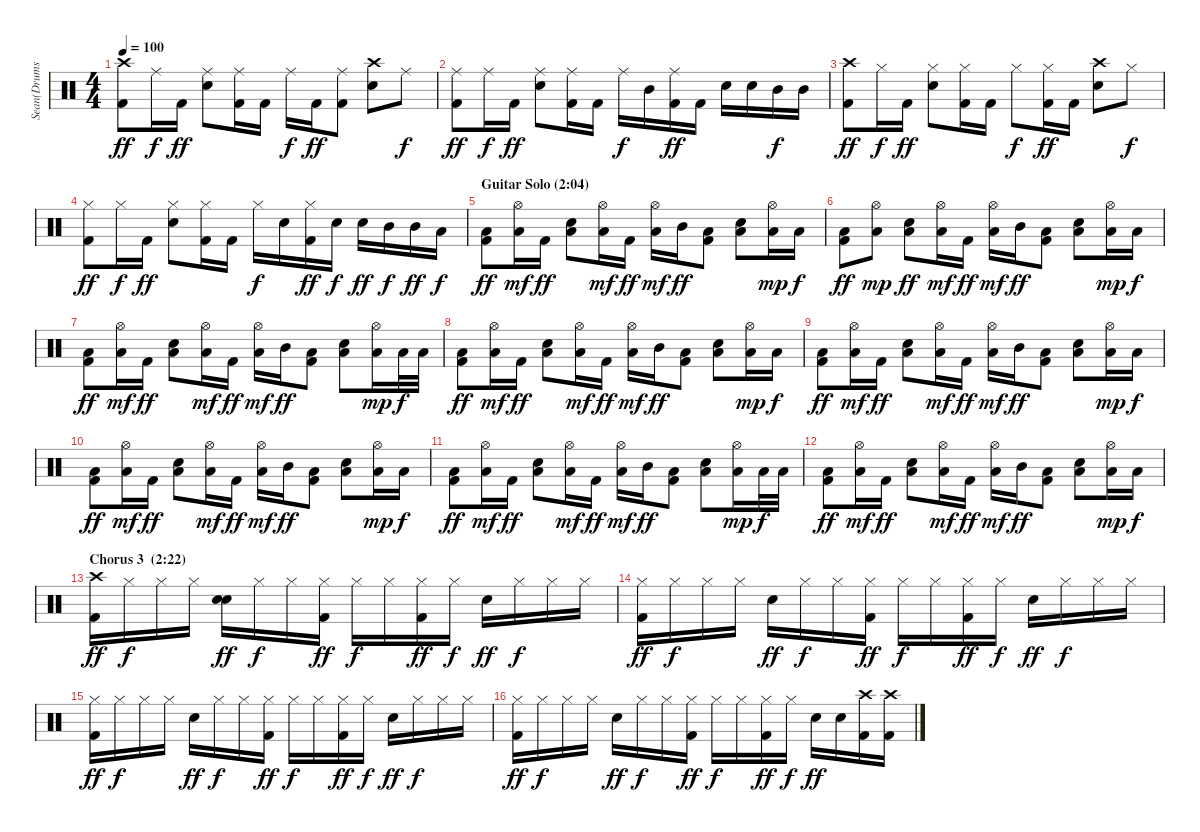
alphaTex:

\track ("Sean(Drums)" "Sean(Drums") {instrument percussion}
\staff {score}
\articulation defaults
\ts (4 4)
\tempo 100
\clef neutral
\ks c
("Crash high (hit)" "Kick (hit) 2").8{dy ff} "Ride (middle)".16{dy f} "Kick (hit) 2".16{dy ff} ("Ride (middle)" "Electric Snare (hit)").8 ("Ride (middle)" "Kick (hit) 2").16 "Kick (hit) 2".16 "Ride (middle)".16{dy f} "Kick (hit) 2".16{dy ff} ("Ride (middle)" "Kick (hit) 2").8 ("Crash high (hit)" "Electric Snare (hit)").8 "Ride (middle)".8{dy f} |
("Ride (middle)" "Kick (hit) 2").8{dy ff} "Ride (middle)".16{dy f} "Kick (hit) 2".16{dy ff} ("Ride (middle)" "Electric Snare (hit)").8 ("Ride (middle)" "Kick (hit) 2").16 "Kick (hit) 2".16 "Ride (middle)".16{dy f} "Mid Tom (hit)".16 ("Ride (middle)" "Kick (hit) 2").16{dy ff} "Kick (hit) 2".16 "Electric Snare (hit)".16 "Electric Snare (hit)".16 "Mid Tom (hit)".16{dy f} "Mid Tom (hit)".16 |
("Crash high (hit)" "Kick (hit) 2").8{dy ff} "Hi-Hat (closed)".16{dy f} "Kick (hit) 2".16{dy ff} ("Hi-Hat (closed)" "Electric Snare (hit)").8 ("Hi-Hat (closed)" "Kick (hit) 2").16 "Kick (hit) 2".16 "Hi-Hat (closed)".8{dy f} ("Hi-Hat (closed)" "Kick (hit) 2").16{dy ff} "Kick (hit) 2".16 ("Crash high (hit)" "Electric Snare (hit)").8 "Hi-Hat (closed)".8{dy f} |
("Hi-Hat (closed)" "Kick (hit) 2").8{dy ff} "Hi-Hat (closed)".16{dy f} "Kick (hit) 2".16{dy ff} ("Hi-Hat (closed)" "Electric Snare (hit)").8 ("Hi-Hat (closed)" "Kick (hit) 2").16 "Kick (hit) 2".16 "Hi-Hat (closed)".16{dy f} "Electric Snare (hit)".16 ("Hi-Hat (closed)" "Kick (hit) 2").16{dy ff} "Electric Snare (hit)".16{dy f} "Electric Snare (hit)".16{dy ff} "Mid Tom (hit)".16{dy f} "Mid Tom (hit)".16{dy ff} "Low Floor Tom (hit)".16{dy f} |
\section ("" "Guitar Solo (2:04)")
("Low Tom (hit)" "Kick (hit) 2").8{dy ff} ("Hi-Hat (open)" "Low Tom (hit)").16{dy mf} "Kick (hit) 2".16{dy ff} ("Low Tom (hit)" "Electric Snare (hit)").8 ("Hi-Hat (open)" "Low Tom (hit)").16{dy mf} "Kick (hit) 2".16{dy ff} ("Hi-Hat (open)" "Low Tom (hit)").16{dy mf} "Mid Tom (hit)".16{dy ff} ("Low Tom (hit)" "Kick (hit) 2").8 ("Low Tom (hit)" "Electric Snare (hit)").8 ("Hi-Hat (open)" "Low Tom (hit)").16{dy mp} "Low Tom (hit)".16{dy f} |
("Low Tom (hit)" "Kick (hit) 2").8{dy ff} ("Hi-Hat (open)" "Low Tom (hit)").8{dy mp} ("Low Tom (hit)" "Electric Snare (hit)").8{dy ff} ("Hi-Hat (open)" "Low Tom (hit)").16{dy mf} "Kick (hit) 2".16{dy ff} ("Hi-Hat (open)" "Low Tom (hit)").16{dy mf} "Mid Tom (hit)".16{dy ff} ("Low Tom (hit)" "Kick (hit) 2").8 ("Low Tom (hit)" "Electric Snare (hit)").8 ("Hi-Hat (open)" "Low Tom (hit)").16{dy mp} "Low Tom (hit)".16{dy f} |
("Low Tom (hit)" "Kick (hit) 2").8{dy ff} ("Hi-Hat (open)" "Low Tom (hit)").16{dy mf} "Kick (hit) 2".16{dy ff} ("Low Tom (hit)" "Electric Snare (hit)").8 ("Hi-Hat (open)" "Low Tom (hit)").16{dy mf} "Kick (hit) 2".16{dy ff} ("Hi-Hat (open)" "Low Tom (hit)").16{dy mf} "Mid Tom (hit)".16{dy ff} ("Low Tom (hit)" "Kick (hit) 2").8 ("Low Tom (hit)" "Electric Snare (hit)").8 ("Hi-Hat (open)" "Low Tom (hit)").16{dy mp} "Low Tom (hit)".32{dy f} "Low Tom (hit)".32 |
("Low Tom (hit)" "Kick (hit) 2").8{dy ff} ("Hi-Hat (open)" "Low Tom (hit)").16{dy mf} "Kick (hit) 2".16{dy ff} ("Low Tom (hit)" "Electric Snare (hit)").8 ("Hi-Hat (open)" "Low Tom (hit)").16{dy mf} "Kick (hit) 2".16{dy ff} ("Hi-Hat (open)" "Low Tom (hit)").16{dy mf} "Mid Tom (hit)".16{dy ff} ("Low Tom (hit)" "Kick (hit) 2").8 ("Low Tom (hit)" "Electric Snare (hit)").8 ("Hi-Hat (open)" "Low Tom (hit)").16{dy mp} "Low Tom (hit)".16{dy f} |
("Low Tom (hit)" "Kick (hit) 2").8{dy ff} ("Hi-Hat (open)" "Low Tom (hit)").16{dy mf} "Kick (hit) 2".16{dy ff} ("Low Tom (hit)" "Electric Snare (hit)").8 ("Hi-Hat (open)" "Low Tom (hit)").16{dy mf} "Kick (hit) 2".16{dy ff} ("Hi-Hat (open)" "Low Tom (hit)").16{dy mf} "Mid Tom (hit)".16{dy ff} ("Low Tom (hit)" "Kick (hit) 2").8 ("Low Tom (hit)" "Electric Snare (hit)").8 ("Hi-Hat (open)" "Low Tom (hit)").16{dy mp} "Low Tom (hit)".16{dy f} |
("Low Tom (hit)" "Kick (hit) 2").8{dy ff} ("Hi-Hat (open)" "Low Tom (hit)").16{dy mf} "Kick (hit) 2".16{dy ff} ("Low Tom (hit)" "Electric Snare (hit)").8 ("Hi-Hat (open)" "Low Tom (hit)").16{dy mf} "Kick (hit) 2".16{dy ff} ("Hi-Hat (open)" "Low Tom (hit)").16{dy mf} "Mid Tom (hit)".16{dy ff} ("Low Tom (hit)" "Kick (hit) 2").8 ("Low Tom (hit)" "Electric Snare (hit)").8 ("Hi-Hat (open)" "Low Tom (hit)").16{dy mp} "Low Tom (hit)".16{dy f} |
("Low Tom (hit)" "Kick (hit) 2").8{dy ff} ("Hi-Hat (open)" "Low Tom (hit)").16{dy mf} "Kick (hit) 2".16{dy ff} ("Low Tom (hit)" "Electric Snare (hit)").8 ("Hi-Hat (open)" "Low Tom (hit)").16{dy mf} "Kick (hit) 2".16{dy ff} ("Hi-Hat (open)" "Low Tom (hit)").16{dy mf} "Mid Tom (hit)".16{dy ff} ("Low Tom (hit)" "Kick (hit) 2").8 ("Low Tom (hit)" "Electric Snare (hit)").8 ("Hi-Hat (open)" "Low Tom (hit)").16{dy mp} "Low Tom (hit)".32{dy f} "Low Tom (hit)".32 |
("Low Tom (hit)" "Kick (hit) 2").8{dy ff} ("Hi-Hat (open)" "Low Tom (hit)").16{dy mf} "Kick (hit) 2".16{dy ff} ("Low Tom (hit)" "Electric Snare (hit)").8 ("Hi-Hat (open)" "Low Tom (hit)").16{dy mf} "Kick (hit) 2".16{dy ff} ("Hi-Hat (open)" "Low Tom (hit)").16{dy mf} "Mid Tom (hit)".16{dy ff} ("Low Tom (hit)" "Kick (hit) 2").8 ("Low Tom (hit)" "Electric Snare (hit)").8 ("Hi-Hat (open)" "Low Floor Tom (hit)").16{dy mp} "Low Floor Tom (hit)".16{dy f} |
\section ("" "Chorus 3  (2:22)")
("Crash high (hit)" "Kick (hit) 2").16{dy ff} "Hi-Hat (closed)".16{dy f} "Hi-Hat (closed)".16 "Hi-Hat (closed)".16 ("Electric Snare (hit)" "Snare (hit) 2").16{dy ff} "Hi-Hat (closed)".16{dy f} "Hi-Hat (closed)".16 ("Hi-Hat (closed)" "Kick (hit) 2").16{dy ff} "Hi-Hat (closed)".16{dy f} "Hi-Hat (closed)".16 ("Hi-Hat (closed)" "Kick (hit) 2").16{dy ff} "Hi-Hat (closed)".16{dy f} "Electric Snare (hit)".16{dy ff} "Hi-Hat (closed)".16{dy f} "Hi-Hat (closed)".16 "Hi-Hat (closed)".16 |
("Hi-Hat (closed)" "Kick (hit) 2").16{dy ff} "Hi-Hat (closed)".16{dy f} "Hi-Hat (closed)".16 "Hi-Hat (closed)".16 "Electric Snare (hit)".16{dy ff} "Hi-Hat (closed)".16{dy f} "Hi-Hat (closed)".16 ("Hi-Hat (closed)" "Kick (hit) 2").16{dy ff} "Hi-Hat (closed)".16{dy f} "Hi-Hat (closed)".16 ("Hi-Hat (closed)" "Kick (hit) 2").16{dy ff} "Hi-Hat (closed)".16{dy f} "Electric Snare (hit)".16{dy ff} "Hi-Hat (closed)".16{dy f} "Hi-Hat (closed)".16 "Hi-Hat (closed)".16 |
("Hi-Hat (closed)" "Kick (hit) 2").16{dy ff} "Hi-Hat (closed)".16{dy f} "Hi-Hat (closed)".16 "Hi-Hat (closed)".16 "Electric Snare (hit)".16{dy ff} "Hi-Hat (closed)".16{dy f} "Hi-Hat (closed)".16 ("Hi-Hat (closed)" "Kick (hit) 2").16{dy ff} "Hi-Hat (closed)".16{dy f} "Hi-Hat (closed)".16 ("Hi-Hat (closed)" "Kick (hit) 2").16{dy ff} "Hi-Hat (closed)".16{dy f} "Electric Snare (hit)".16{dy ff} "Hi-Hat (closed)".16{dy f} "Hi-Hat (closed)".16 "Hi-Hat (closed)".16 |
("Hi-Hat (closed)" "Kick (hit) 2").16{dy ff} "Hi-Hat (closed)".16{dy f} "Hi-Hat (closed)".16 "Hi-Hat (closed)".16 "Electric Snare (hit)".16{dy ff} "Hi-Hat (closed)".16{dy f} "Hi-Hat (closed)".16 ("Hi-Hat (closed)" "Kick (hit) 2").16{dy ff} "Hi-Hat (closed)".16{dy f} "Hi-Hat (closed)".16 ("Hi-Hat (closed)" "Kick (hit) 2").16{dy ff} "Hi-Hat (closed)".16{dy f} "Electric Snare (hit)".16{dy ff} "Electric Snare (hit)".16 ("Crash high (hit)" "Kick (hit) 2").16 ("Crash high (hit)" "Kick (hit) 2").16
